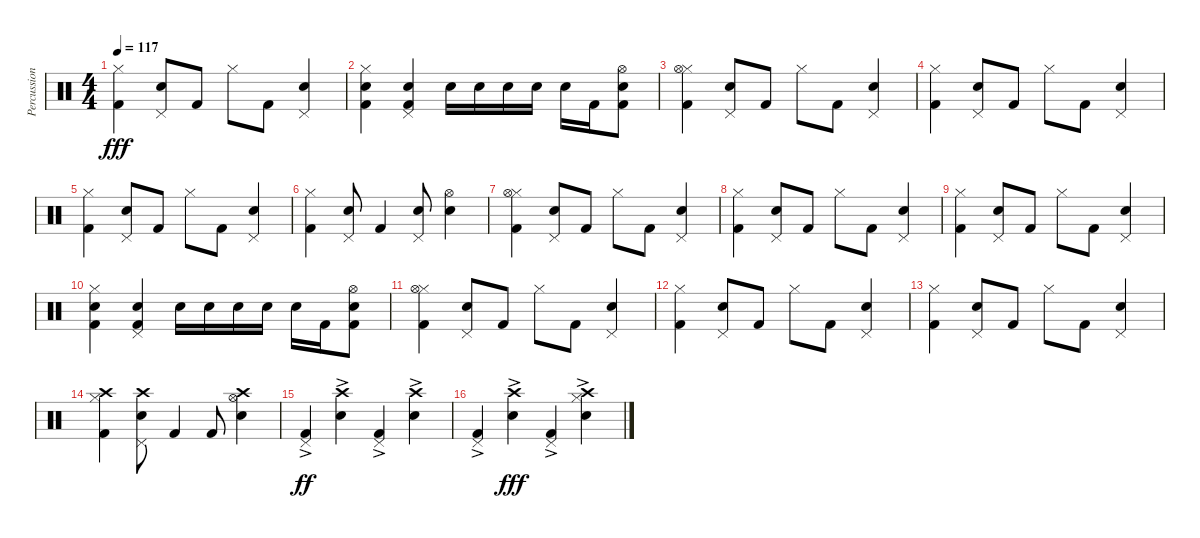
\track ("Percussion" "Percussion") {instrument percussion}
\staff {score}
\articulation defaults
\ts (4 4)
\tempo 117
\clef neutral
\ks c
("Hi-Hat (closed)" "Kick (hit) 2").4{dy fff} ("Pedal Hi-Hat (hit)" "Electric Snare (hit)").8 "Kick (hit) 2".8 "Hi-Hat (closed)".8 "Kick (hit) 2".8 ("Pedal Hi-Hat (hit)" "Electric Snare (hit)").4 |
("Hi-Hat (closed)" "Electric Snare (hit)" "Kick (hit) 2").4 ("Pedal Hi-Hat (hit)" "Electric Snare (hit)" "Kick (hit) 2").4 "Electric Snare (hit)".16 "Electric Snare (hit)".16 "Electric Snare (hit)".16 "Electric Snare (hit)".16 "Electric Snare (hit)".16 "Kick (hit) 2".16 ("Hi-Hat (open)" "Electric Snare (hit)" "Kick (hit) 2").8 |
("Hi-Hat (closed)" "Kick (hit) 2" "Hi-Hat (open)").4 ("Pedal Hi-Hat (hit)" "Electric Snare (hit)").8 "Kick (hit) 2".8 "Hi-Hat (closed)".8 "Kick (hit) 2".8 ("Pedal Hi-Hat (hit)" "Electric Snare (hit)").4 |
("Hi-Hat (closed)" "Kick (hit) 2").4 ("Pedal Hi-Hat (hit)" "Electric Snare (hit)").8 "Kick (hit) 2".8 "Hi-Hat (closed)".8 "Kick (hit) 2".8 ("Pedal Hi-Hat (hit)" "Electric Snare (hit)").4 |
("Hi-Hat (closed)" "Kick (hit) 2").4 ("Pedal Hi-Hat (hit)" "Electric Snare (hit)").8 "Kick (hit) 2".8 "Hi-Hat (closed)".8 "Kick (hit) 2".8 ("Pedal Hi-Hat (hit)" "Electric Snare (hit)").4 |
("Hi-Hat (closed)" "Kick (hit) 2").4 ("Pedal Hi-Hat (hit)" "Electric Snare (hit)").8 "Kick (hit) 2".4 ("Pedal Hi-Hat (hit)" "Electric Snare (hit)").8 ("Hi-Hat (open)" "Electric Snare (hit)").4 |
("Hi-Hat (closed)" "Kick (hit) 2" "Hi-Hat (open)").4 ("Pedal Hi-Hat (hit)" "Electric Snare (hit)").8 "Kick (hit) 2".8 "Hi-Hat (closed)".8 "Kick (hit) 2".8 ("Pedal Hi-Hat (hit)" "Electric Snare (hit)").4 |
("Hi-Hat (closed)" "Kick (hit) 2").4 ("Pedal Hi-Hat (hit)" "Electric Snare (hit)").8 "Kick (hit) 2".8 "Hi-Hat (closed)".8 "Kick (hit) 2".8 ("Pedal Hi-Hat (hit)" "Electric Snare (hit)").4 |
("Hi-Hat (closed)" "Kick (hit) 2").4 ("Pedal Hi-Hat (hit)" "Electric Snare (hit)").8 "Kick (hit) 2".8 "Hi-Hat (closed)".8 "Kick (hit) 2".8 ("Pedal Hi-Hat (hit)" "Electric Snare (hit)").4 |
("Hi-Hat (closed)" "Electric Snare (hit)" "Kick (hit) 2").4 ("Pedal Hi-Hat (hit)" "Electric Snare (hit)" "Kick (hit) 2").4 "Electric Snare (hit)".16 "Electric Snare (hit)".16 "Electric Snare (hit)".16 "Electric Snare (hit)".16 "Electric Snare (hit)".16 "Kick (hit) 2".16 ("Hi-Hat (open)" "Electric Snare (hit)" "Kick (hit) 2").8 |
("Hi-Hat (closed)" "Kick (hit) 2" "Hi-Hat (open)").4 ("Pedal Hi-Hat (hit)" "Electric Snare (hit)").8 "Kick (hit) 2".8 "Hi-Hat (closed)".8 "Kick (hit) 2".8 ("Pedal Hi-Hat (hit)" "Electric Snare (hit)").4 |
("Hi-Hat (closed)" "Kick (hit) 2").4 ("Pedal Hi-Hat (hit)" "Electric Snare (hit)").8 "Kick (hit) 2".8 "Hi-Hat (closed)".8 "Kick (hit) 2".8 ("Pedal Hi-Hat (hit)" "Electric Snare (hit)").4 |
("Hi-Hat (closed)" "Kick (hit) 2").4 ("Pedal Hi-Hat (hit)" "Electric Snare (hit)").8 "Kick (hit) 2".8 "Hi-Hat (closed)".8 "Kick (hit) 2".8 ("Pedal Hi-Hat (hit)" "Electric Snare (hit)").4 |
("Crash high (hit)" "Hi-Hat (closed)" "Kick (hit) 2").4 ("Crash high (hit)" "Pedal Hi-Hat (hit)" "Electric Snare (hit)").8 "Kick (hit) 2".4 "Kick (hit) 2".8 ("Crash high (hit)" "Hi-Hat (open)" "Electric Snare (hit)").4 |
("Pedal Hi-Hat (hit)"{ac} "Kick (hit) 2"{ac}).4{dy ff} ("Crash high (hit)"{ac} "Electric Snare (hit)"{ac}).4 ("Pedal Hi-Hat (hit)"{ac} "Kick (hit) 2"{ac}).4 ("Crash high (hit)"{ac} "Electric Snare (hit)"{ac}).4 |
("Pedal Hi-Hat (hit)"{ac} "Kick (hit) 2"{ac}).4 ("Crash high (hit)"{ac} "Electric Snare (hit)"{ac}).4{dy fff} ("Pedal Hi-Hat (hit)"{ac} "Kick (hit) 2"{ac}).4 ("Crash high (hit)"{ac} "Hi-Hat (closed)"{ac} "Electric Snare (hit)"{ac}).4
